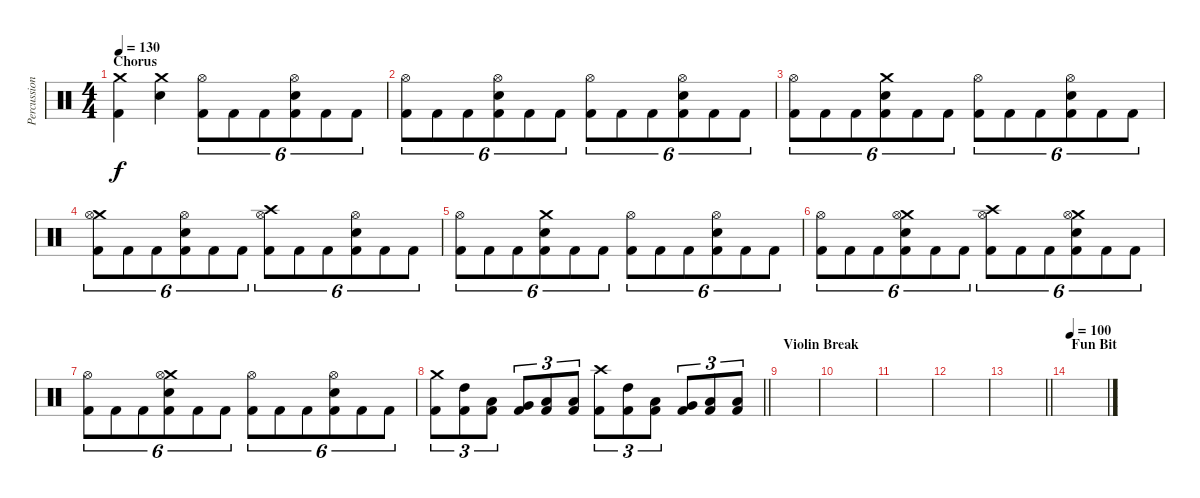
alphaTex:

\track ("Percussion" "Percussion") {instrument percussion}
\staff {score}
\articulation defaults
\ts (4 4)
\section ("" "Chorus")
\tempo 130
\clef neutral
\ks c
("Crash medium (hit)" "Kick (hit) 2").4{dy f} ("Crash medium (hit)" "Snare (hit) 2").4 ("Hi-Hat (open)" "Kick (hit) 2").8{tu (6 4)} "Kick (hit) 2".8{tu (6 4)} "Kick (hit) 2".8{tu (6 4)} ("Hi-Hat (open)" "Snare (hit) 2" "Kick (hit) 2").8{tu (6 4)} "Kick (hit) 2".8{tu (6 4)} "Kick (hit) 2".8{tu (6 4)} |
("Hi-Hat (open)" "Kick (hit) 2").8{tu (6 4)} "Kick (hit) 2".8{tu (6 4)} "Kick (hit) 2".8{tu (6 4)} ("Hi-Hat (open)" "Snare (hit) 2" "Kick (hit) 2").8{tu (6 4)} "Kick (hit) 2".8{tu (6 4)} "Kick (hit) 2".8{tu (6 4)} ("Hi-Hat (open)" "Kick (hit) 2").8{tu (6 4)} "Kick (hit) 2".8{tu (6 4)} "Kick (hit) 2".8{tu (6 4)} ("Hi-Hat (open)" "Snare (hit) 2" "Kick (hit) 2").8{tu (6 4)} "Kick (hit) 2".8{tu (6 4)} "Kick (hit) 2".8{tu (6 4)} |
("Hi-Hat (open)" "Kick (hit) 2").8{tu (6 4)} "Kick (hit) 2".8{tu (6 4)} "Kick (hit) 2".8{tu (6 4)} ("Crash medium (hit)" "Snare (hit) 2" "Kick (hit) 2").8{tu (6 4)} "Kick (hit) 2".8{tu (6 4)} "Kick (hit) 2".8{tu (6 4)} ("Hi-Hat (open)" "Kick (hit) 2").8{tu (6 4)} "Kick (hit) 2".8{tu (6 4)} "Kick (hit) 2".8{tu (6 4)} ("Hi-Hat (open)" "Snare (hit) 2" "Kick (hit) 2").8{tu (6 4)} "Kick (hit) 2".8{tu (6 4)} "Kick (hit) 2".8{tu (6 4)} |
("Crash medium (hit)" "Hi-Hat (open)" "Kick (hit) 2").8{tu (6 4)} "Kick (hit) 2".8{tu (6 4)} "Kick (hit) 2".8{tu (6 4)} ("Hi-Hat (open)" "Snare (hit) 2" "Kick (hit) 2").8{tu (6 4)} "Kick (hit) 2".8{tu (6 4)} "Kick (hit) 2".8{tu (6 4)} ("Crash high (hit)" "Hi-Hat (open)" "Kick (hit) 2").8{tu (6 4)} "Kick (hit) 2".8{tu (6 4)} "Kick (hit) 2".8{tu (6 4)} ("Hi-Hat (open)" "Snare (hit) 2" "Kick (hit) 2").8{tu (6 4)} "Kick (hit) 2".8{tu (6 4)} "Kick (hit) 2".8{tu (6 4)} |
("Hi-Hat (open)" "Kick (hit) 2").8{tu (6 4)} "Kick (hit) 2".8{tu (6 4)} "Kick (hit) 2".8{tu (6 4)} ("Crash medium (hit)" "Snare (hit) 2" "Kick (hit) 2").8{tu (6 4)} "Kick (hit) 2".8{tu (6 4)} "Kick (hit) 2".8{tu (6 4)} ("Hi-Hat (open)" "Kick (hit) 2").8{tu (6 4)} "Kick (hit) 2".8{tu (6 4)} "Kick (hit) 2".8{tu (6 4)} ("Hi-Hat (open)" "Snare (hit) 2" "Kick (hit) 2").8{tu (6 4)} "Kick (hit) 2".8{tu (6 4)} "Kick (hit) 2".8{tu (6 4)} |
("Hi-Hat (open)" "Kick (hit) 2").8{tu (6 4)} "Kick (hit) 2".8{tu (6 4)} "Kick (hit) 2".8{tu (6 4)} ("Crash medium (hit)" "Hi-Hat (open)" "Snare (hit) 2" "Kick (hit) 2").8{tu (6 4)} "Kick (hit) 2".8{tu (6 4)} "Kick (hit) 2".8{tu (6 4)} ("Crash high (hit)" "Hi-Hat (open)" "Kick (hit) 2").8{tu (6 4)} "Kick (hit) 2".8{tu (6 4)} "Kick (hit) 2".8{tu (6 4)} ("Crash medium (hit)" "Hi-Hat (open)" "Snare (hit) 2" "Kick (hit) 2").8{tu (6 4)} "Kick (hit) 2".8{tu (6 4)} "Kick (hit) 2".8{tu (6 4)} |
("Hi-Hat (open)" "Kick (hit) 2").8{tu (6 4)} "Kick (hit) 2".8{tu (6 4)} "Kick (hit) 2".8{tu (6 4)} ("Crash medium (hit)" "Hi-Hat (open)" "Snare (hit) 2" "Kick (hit) 2").8{tu (6 4)} "Kick (hit) 2".8{tu (6 4)} "Kick (hit) 2".8{tu (6 4)} ("Hi-Hat (open)" "Kick (hit) 2").8{tu (6 4)} "Kick (hit) 2".8{tu (6 4)} "Kick (hit) 2".8{tu (6 4)} ("Hi-Hat (open)" "Snare (hit) 2" "Kick (hit) 2").8{tu (6 4)} "Kick (hit) 2".8{tu (6 4)} "Kick (hit) 2".8{tu (6 4)} |
\barLineRight lightlight
("Crash medium (hit)" "Kick (hit) 2").8{tu (3 2)} ("High Tom (hit)" "Kick (hit) 2").8{tu (3 2)} ("Low Tom (hit)" "Kick (hit) 2").8{tu (3 2)} ("Very Low Tom (hit)" "Kick (hit) 2").8{tu (3 2)} ("Low Floor Tom (hit)" "Kick (hit) 2").8{tu (3 2)} ("Low Floor Tom (hit)" "Kick (hit) 2").8{tu (3 2)} ("Crash high (hit)" "Kick (hit) 2").8{tu (3 2)} ("High Tom (hit)" "Kick (hit) 2").8{tu (3 2)} ("Low Tom (hit)" "Kick (hit) 2").8{tu (3 2)} ("Very Low Tom (hit)" "Kick (hit) 2").8{tu (3 2)} ("Low Floor Tom (hit)" "Kick (hit) 2").8{tu (3 2)} ("Low Floor Tom (hit)" "Kick (hit) 2").8{tu (3 2)} |
\section ("" "Violin Break")
|
|
|
|
\barLineRight lightlight
|
\section ("" "Fun Bit ")
\tempo 100
